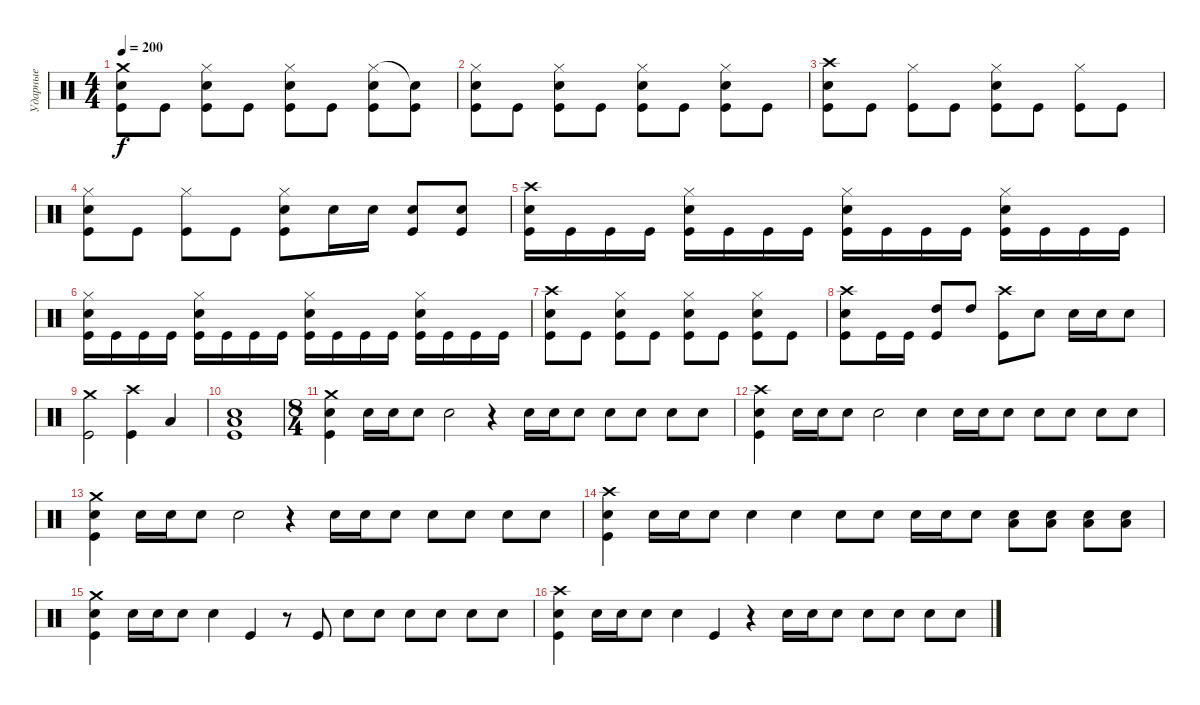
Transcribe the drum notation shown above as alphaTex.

\track ("Ударные" "Ударные") {instrument percussion}
\staff {score}
\articulation defaults
\ts (4 4)
\tempo 200
\clef neutral
\ks c
("Crash medium (hit)" "Electric Snare (hit)" "Kick (hit)").8{dy f} "Kick (hit)".8 ("Hi-Hat (closed)" "Electric Snare (hit)" "Kick (hit)").8 "Kick (hit)".8 ("Hi-Hat (closed)" "Electric Snare (hit)" "Kick (hit)").8 "Kick (hit)".8 ("Hi-Hat (closed)" "Electric Snare (hit)" "Kick (hit)").8 ("Snare (hit)"{t} "Kick (hit)").8 |
("Hi-Hat (closed)" "Electric Snare (hit)" "Kick (hit)").8 "Kick (hit)".8 ("Hi-Hat (closed)" "Electric Snare (hit)" "Kick (hit)").8 "Kick (hit)".8 ("Hi-Hat (closed)" "Electric Snare (hit)" "Kick (hit)").8 "Kick (hit)".8 ("Hi-Hat (closed)" "Electric Snare (hit)" "Kick (hit)").8 "Kick (hit)".8 |
("Crash high (hit)" "Electric Snare (hit)" "Kick (hit)").8 "Kick (hit)".8 ("Hi-Hat (closed)" "Kick (hit)").8 "Kick (hit)".8 ("Hi-Hat (closed)" "Electric Snare (hit)" "Kick (hit)").8 "Kick (hit)".8 ("Hi-Hat (closed)" "Kick (hit)").8 "Kick (hit)".8 |
("Hi-Hat (closed)" "Electric Snare (hit)" "Kick (hit)").8 "Kick (hit)".8 ("Hi-Hat (closed)" "Kick (hit)").8 "Kick (hit)".8 ("Hi-Hat (closed)" "Electric Snare (hit)" "Kick (hit)").8 "Electric Snare (hit)".16 "Electric Snare (hit)".16 ("Electric Snare (hit)" "Kick (hit)").8 ("Electric Snare (hit)" "Kick (hit)").8 |
("Crash high (hit)" "Electric Snare (hit)" "Kick (hit)").16 "Kick (hit)".16 "Kick (hit)".16 "Kick (hit)".16 ("Hi-Hat (closed)" "Electric Snare (hit)" "Kick (hit)").16 "Kick (hit)".16 "Kick (hit)".16 "Kick (hit)".16 ("Hi-Hat (closed)" "Electric Snare (hit)" "Kick (hit)").16 "Kick (hit)".16 "Kick (hit)".16 "Kick (hit)".16 ("Hi-Hat (closed)" "Electric Snare (hit)" "Kick (hit)").16 "Kick (hit)".16 "Kick (hit)".16 "Kick (hit)".16 |
("Hi-Hat (closed)" "Electric Snare (hit)" "Kick (hit)").16 "Kick (hit)".16 "Kick (hit)".16 "Kick (hit)".16 ("Hi-Hat (closed)" "Electric Snare (hit)" "Kick (hit)").16 "Kick (hit)".16 "Kick (hit)".16 "Kick (hit)".16 ("Hi-Hat (closed)" "Electric Snare (hit)" "Kick (hit)").16 "Kick (hit)".16 "Kick (hit)".16 "Kick (hit)".16 ("Hi-Hat (closed)" "Electric Snare (hit)" "Kick (hit)").16 "Kick (hit)".16 "Kick (hit)".16 "Kick (hit)".16 |
("Crash high (hit)" "Electric Snare (hit)" "Kick (hit)").8 "Kick (hit)".8 ("Hi-Hat (closed)" "Electric Snare (hit)" "Kick (hit)").8 "Kick (hit)".8 ("Hi-Hat (closed)" "Electric Snare (hit)" "Kick (hit)").8 "Kick (hit)".8 ("Hi-Hat (closed)" "Electric Snare (hit)" "Kick (hit)").8 "Kick (hit)".8 |
("Crash high (hit)" "Electric Snare (hit)" "Kick (hit)").8 "Kick (hit)".16 "Kick (hit)".16 ("High Tom (hit)" "Kick (hit)").8 "High Tom (hit)".8 ("Crash high (hit)" "Kick (hit)").8 "Electric Snare (hit)".8 "Electric Snare (hit)".16 "Electric Snare (hit)".16 "Electric Snare (hit)".8 |
("Crash medium (hit)" "Kick (hit)").2 ("Crash high (hit)" "Kick (hit)").4 "Low Tom (hit)".4 |
("Electric Snare (hit)" "Low Tom (hit)" "Kick (hit)").1 |
\ts (8 4)
("Crash medium (hit)" "Electric Snare (hit)" "Kick (hit)").4 "Electric Snare (hit)".16 "Electric Snare (hit)".16 "Electric Snare (hit)".8 "Electric Snare (hit)".2 r.4 "Electric Snare (hit)".16 "Electric Snare (hit)".16 "Electric Snare (hit)".8 "Electric Snare (hit)".8 "Electric Snare (hit)".8 "Electric Snare (hit)".8 "Electric Snare (hit)".8 |
("Crash high (hit)" "Electric Snare (hit)" "Kick (hit)").4 "Electric Snare (hit)".16 "Electric Snare (hit)".16 "Electric Snare (hit)".8 "Electric Snare (hit)".2 "Electric Snare (hit)".4 "Electric Snare (hit)".16 "Electric Snare (hit)".16 "Electric Snare (hit)".8 "Electric Snare (hit)".8 "Electric Snare (hit)".8 "Electric Snare (hit)".8 "Electric Snare (hit)".8 |
("Crash medium (hit)" "Electric Snare (hit)" "Kick (hit)").4 "Electric Snare (hit)".16 "Electric Snare (hit)".16 "Electric Snare (hit)".8 "Electric Snare (hit)".2 r.4 "Electric Snare (hit)".16 "Electric Snare (hit)".16 "Electric Snare (hit)".8 "Electric Snare (hit)".8 "Electric Snare (hit)".8 "Electric Snare (hit)".8 "Electric Snare (hit)".8 |
("Crash high (hit)" "Electric Snare (hit)" "Kick (hit)").4 "Electric Snare (hit)".16 "Electric Snare (hit)".16 "Electric Snare (hit)".8 "Electric Snare (hit)".4 "Electric Snare (hit)".4 "Electric Snare (hit)".8 "Electric Snare (hit)".8 "Electric Snare (hit)".16 "Electric Snare (hit)".16 "Electric Snare (hit)".8 ("Electric Snare (hit)" "Low Tom (hit)").8 ("Electric Snare (hit)" "Low Tom (hit)").8 ("Electric Snare (hit)" "Low Tom (hit)").8 ("Electric Snare (hit)" "Low Tom (hit)").8 |
("Crash medium (hit)" "Electric Snare (hit)" "Kick (hit)").4 "Electric Snare (hit)".16 "Electric Snare (hit)".16 "Electric Snare (hit)".8 "Electric Snare (hit)".4 "Kick (hit)".4 r.8 "Kick (hit)".8 "Electric Snare (hit)".8 "Electric Snare (hit)".8 "Electric Snare (hit)".8 "Electric Snare (hit)".8 "Electric Snare (hit)".8 "Electric Snare (hit)".8 |
("Crash high (hit)" "Electric Snare (hit)" "Kick (hit)").4 "Electric Snare (hit)".16 "Electric Snare (hit)".16 "Electric Snare (hit)".8 "Electric Snare (hit)".4 "Kick (hit)".4 r.4 "Electric Snare (hit)".16 "Electric Snare (hit)".16 "Electric Snare (hit)".8 "Electric Snare (hit)".8 "Electric Snare (hit)".8 "Electric Snare (hit)".8 "Electric Snare (hit)".8
